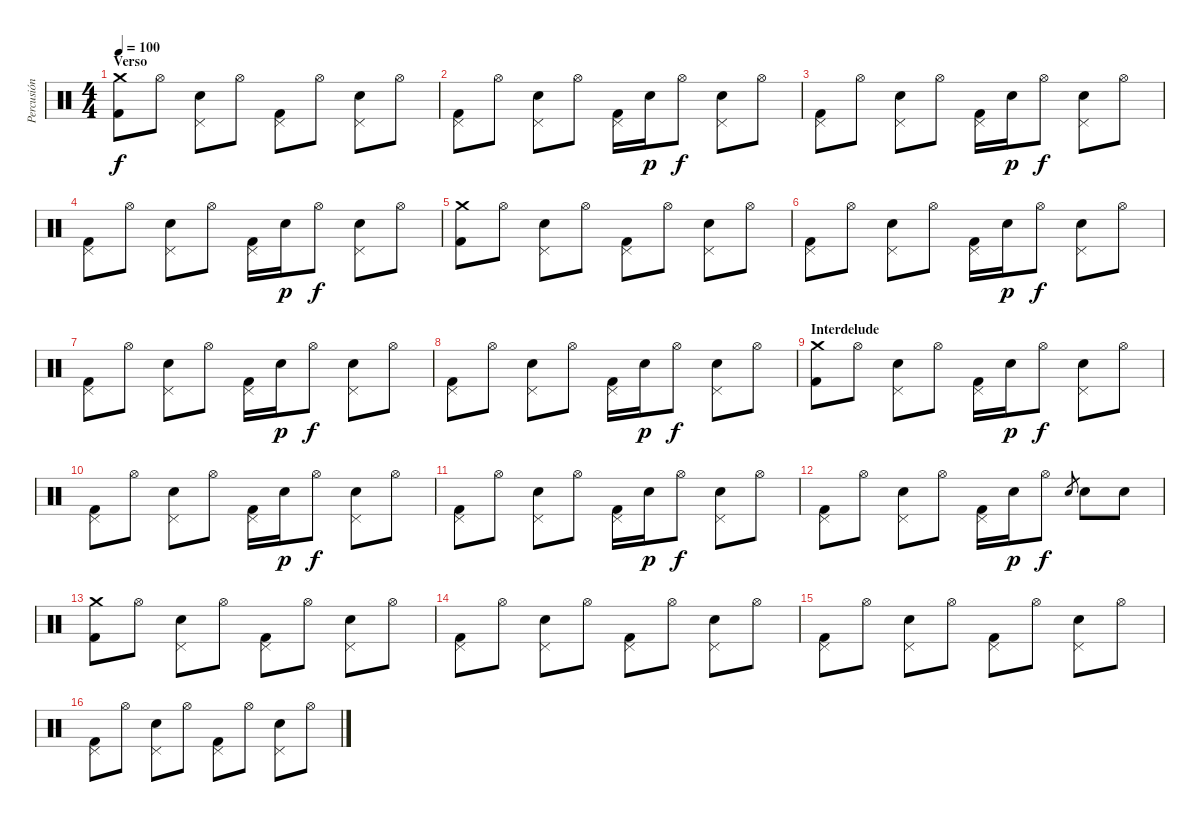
\track ("Percusión" "Percusión") {instrument percussion}
\staff {score}
\articulation defaults
\ts (4 4)
\section ("" "Verso")
\tempo 100
\clef neutral
\ks c
("Crash medium (hit)" "Kick (hit) 2").8{dy f} "Hi-Hat (open)".8 ("Electric Snare (hit)" "Pedal Hi-Hat (hit)").8 "Hi-Hat (open)".8 ("Pedal Hi-Hat (hit)" "Kick (hit) 2").8 "Hi-Hat (open)".8 ("Electric Snare (hit)" "Pedal Hi-Hat (hit)").8 "Hi-Hat (open)".8 |
("Pedal Hi-Hat (hit)" "Kick (hit) 2").8 "Hi-Hat (open)".8 ("Electric Snare (hit)" "Pedal Hi-Hat (hit)").8 "Hi-Hat (open)".8 ("Pedal Hi-Hat (hit)" "Kick (hit) 2").16 "Electric Snare (hit)".16{dy p} "Hi-Hat (open)".8{dy f} ("Electric Snare (hit)" "Pedal Hi-Hat (hit)").8 "Hi-Hat (open)".8 |
("Pedal Hi-Hat (hit)" "Kick (hit) 2").8 "Hi-Hat (open)".8 ("Electric Snare (hit)" "Pedal Hi-Hat (hit)").8 "Hi-Hat (open)".8 ("Pedal Hi-Hat (hit)" "Kick (hit) 2").16 "Electric Snare (hit)".16{dy p} "Hi-Hat (open)".8{dy f} ("Electric Snare (hit)" "Pedal Hi-Hat (hit)").8 "Hi-Hat (open)".8 |
("Pedal Hi-Hat (hit)" "Kick (hit) 2").8 "Hi-Hat (open)".8 ("Electric Snare (hit)" "Pedal Hi-Hat (hit)").8 "Hi-Hat (open)".8 ("Pedal Hi-Hat (hit)" "Kick (hit) 2").16 "Electric Snare (hit)".16{dy p} "Hi-Hat (open)".8{dy f} ("Electric Snare (hit)" "Pedal Hi-Hat (hit)").8 "Hi-Hat (open)".8 |
("Crash medium (hit)" "Kick (hit) 2").8 "Hi-Hat (open)".8 ("Electric Snare (hit)" "Pedal Hi-Hat (hit)").8 "Hi-Hat (open)".8 ("Pedal Hi-Hat (hit)" "Kick (hit) 2").8 "Hi-Hat (open)".8 ("Electric Snare (hit)" "Pedal Hi-Hat (hit)").8 "Hi-Hat (open)".8 |
("Pedal Hi-Hat (hit)" "Kick (hit) 2").8 "Hi-Hat (open)".8 ("Electric Snare (hit)" "Pedal Hi-Hat (hit)").8 "Hi-Hat (open)".8 ("Pedal Hi-Hat (hit)" "Kick (hit) 2").16 "Electric Snare (hit)".16{dy p} "Hi-Hat (open)".8{dy f} ("Electric Snare (hit)" "Pedal Hi-Hat (hit)").8 "Hi-Hat (open)".8 |
("Pedal Hi-Hat (hit)" "Kick (hit) 2").8 "Hi-Hat (open)".8 ("Electric Snare (hit)" "Pedal Hi-Hat (hit)").8 "Hi-Hat (open)".8 ("Pedal Hi-Hat (hit)" "Kick (hit) 2").16 "Electric Snare (hit)".16{dy p} "Hi-Hat (open)".8{dy f} ("Electric Snare (hit)" "Pedal Hi-Hat (hit)").8 "Hi-Hat (open)".8 |
("Pedal Hi-Hat (hit)" "Kick (hit) 2").8 "Hi-Hat (open)".8 ("Electric Snare (hit)" "Pedal Hi-Hat (hit)").8 "Hi-Hat (open)".8 ("Pedal Hi-Hat (hit)" "Kick (hit) 2").16 "Electric Snare (hit)".16{dy p} "Hi-Hat (open)".8{dy f} ("Electric Snare (hit)" "Pedal Hi-Hat (hit)").8 "Hi-Hat (open)".8 |
\section ("" "Interdelude")
("Crash medium (hit)" "Kick (hit) 2").8 "Hi-Hat (open)".8 ("Electric Snare (hit)" "Pedal Hi-Hat (hit)").8 "Hi-Hat (open)".8 ("Pedal Hi-Hat (hit)" "Kick (hit) 2").16 "Electric Snare (hit)".16{dy p} "Hi-Hat (open)".8{dy f} ("Electric Snare (hit)" "Pedal Hi-Hat (hit)").8 "Hi-Hat (open)".8 |
("Pedal Hi-Hat (hit)" "Kick (hit) 2").8 "Hi-Hat (open)".8 ("Electric Snare (hit)" "Pedal Hi-Hat (hit)").8 "Hi-Hat (open)".8 ("Pedal Hi-Hat (hit)" "Kick (hit) 2").16 "Electric Snare (hit)".16{dy p} "Hi-Hat (open)".8{dy f} ("Electric Snare (hit)" "Pedal Hi-Hat (hit)").8 "Hi-Hat (open)".8 |
("Pedal Hi-Hat (hit)" "Kick (hit) 2").8 "Hi-Hat (open)".8 ("Electric Snare (hit)" "Pedal Hi-Hat (hit)").8 "Hi-Hat (open)".8 ("Pedal Hi-Hat (hit)" "Kick (hit) 2").16 "Electric Snare (hit)".16{dy p} "Hi-Hat (open)".8{dy f} ("Electric Snare (hit)" "Pedal Hi-Hat (hit)").8 "Hi-Hat (open)".8 |
("Pedal Hi-Hat (hit)" "Kick (hit) 2").8 "Hi-Hat (open)".8 ("Electric Snare (hit)" "Pedal Hi-Hat (hit)").8 "Hi-Hat (open)".8 ("Pedal Hi-Hat (hit)" "Kick (hit) 2").16 "Electric Snare (hit)".16{dy p} "Hi-Hat (open)".8{dy f} "Electric Snare (hit)".8{gr} "Electric Snare (hit)".8 "Electric Snare (hit)".8 |
("Crash medium (hit)" "Kick (hit) 2").8 "Hi-Hat (open)".8 ("Electric Snare (hit)" "Pedal Hi-Hat (hit)").8 "Hi-Hat (open)".8 ("Pedal Hi-Hat (hit)" "Kick (hit) 2").8 "Hi-Hat (open)".8 ("Electric Snare (hit)" "Pedal Hi-Hat (hit)").8 "Hi-Hat (open)".8 |
("Pedal Hi-Hat (hit)" "Kick (hit) 2").8 "Hi-Hat (open)".8 ("Electric Snare (hit)" "Pedal Hi-Hat (hit)").8 "Hi-Hat (open)".8 ("Pedal Hi-Hat (hit)" "Kick (hit) 2").8 "Hi-Hat (open)".8 ("Electric Snare (hit)" "Pedal Hi-Hat (hit)").8 "Hi-Hat (open)".8 |
("Pedal Hi-Hat (hit)" "Kick (hit) 2").8 "Hi-Hat (open)".8 ("Electric Snare (hit)" "Pedal Hi-Hat (hit)").8 "Hi-Hat (open)".8 ("Pedal Hi-Hat (hit)" "Kick (hit) 2").8 "Hi-Hat (open)".8 ("Electric Snare (hit)" "Pedal Hi-Hat (hit)").8 "Hi-Hat (open)".8 |
("Pedal Hi-Hat (hit)" "Kick (hit) 2").8 "Hi-Hat (open)".8 ("Electric Snare (hit)" "Pedal Hi-Hat (hit)").8 "Hi-Hat (open)".8 ("Pedal Hi-Hat (hit)" "Kick (hit) 2").8 "Hi-Hat (open)".8 ("Electric Snare (hit)" "Pedal Hi-Hat (hit)").8 "Hi-Hat (open)".8
